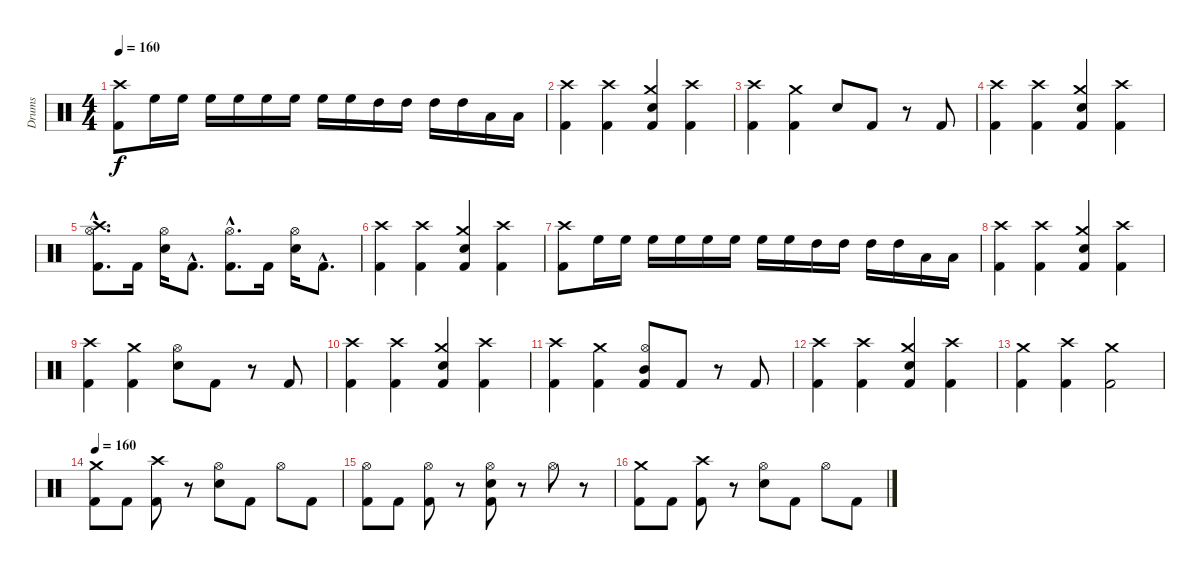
\track ("Drums" "Drums") {instrument percussion}
\staff {score}
\articulation defaults
\ts (4 4)
\tempo 160
\clef neutral
\ks c
("Crash high (hit)" "Kick (hit) 2").8{dy f} "High Floor Tom (hit)".16 "High Floor Tom (hit)".16 "High Floor Tom (hit)".16 "High Floor Tom (hit)".16 "High Floor Tom (hit)".16 "High Floor Tom (hit)".16 "High Floor Tom (hit)".16 "High Floor Tom (hit)".16 "High Tom (hit)".16 "High Tom (hit)".16 "High Tom (hit)".16 "High Tom (hit)".16 "Low Tom (hit)".16 "Low Floor Tom (hit)".16 |
("Crash high (hit)" "Kick (hit) 2").4 ("Crash high (hit)" "Kick (hit) 2").4 ("Crash medium (hit)" "Snare (hit) 2" "Kick (hit) 2").4 ("Crash high (hit)" "Kick (hit) 2").4 |
("Crash high (hit)" "Kick (hit) 2").4 ("Crash medium (hit)" "Kick (hit) 2").4 "Snare (hit) 2".8 "Kick (hit) 2".8 r.8 "Kick (hit) 2".8 |
("Crash high (hit)" "Kick (hit) 2").4 ("Crash high (hit)" "Kick (hit) 2").4 ("Crash medium (hit)" "Snare (hit) 2" "Kick (hit) 2").4 ("Crash high (hit)" "Kick (hit) 2").4 |
("Crash high (hit)"{hac} "Hi-Hat (open)"{hac} "Kick (hit) 2"{hac}).8{d} "Kick (hit) 2".16 ("Snare (hit) 2" "Hi-Hat (open)").16 "Kick (hit) 2"{hac}.8{d} ("Hi-Hat (open)"{hac} "Kick (hit) 2"{hac}).8{d} "Kick (hit) 2".16 ("Snare (hit) 2" "Hi-Hat (open)").16 "Kick (hit) 2"{hac}.8{d} |
("Crash high (hit)" "Kick (hit) 2").4 ("Crash high (hit)" "Kick (hit) 2").4 ("Crash medium (hit)" "Snare (hit) 2" "Kick (hit) 2").4 ("Crash high (hit)" "Kick (hit) 2").4 |
("Crash high (hit)" "Kick (hit) 2").8 "High Floor Tom (hit)".16 "High Floor Tom (hit)".16 "High Floor Tom (hit)".16 "High Floor Tom (hit)".16 "High Floor Tom (hit)".16 "High Floor Tom (hit)".16 "High Floor Tom (hit)".16 "High Floor Tom (hit)".16 "High Tom (hit)".16 "High Tom (hit)".16 "High Tom (hit)".16 "High Tom (hit)".16 "Low Tom (hit)".16 "Low Floor Tom (hit)".16 |
("Crash high (hit)" "Kick (hit) 2").4 ("Crash high (hit)" "Kick (hit) 2").4 ("Crash medium (hit)" "Snare (hit) 2" "Kick (hit) 2").4 ("Crash high (hit)" "Kick (hit) 2").4 |
("Crash high (hit)" "Kick (hit) 2").4 ("Crash medium (hit)" "Kick (hit) 2").4 ("Snare (hit) 2" "Hi-Hat (open)").8 "Kick (hit) 2".8 r.8 "Kick (hit) 2".8 |
("Crash high (hit)" "Kick (hit) 2").4 ("Crash high (hit)" "Kick (hit) 2").4 ("Crash medium (hit)" "Snare (hit) 2" "Kick (hit) 2").4 ("Crash high (hit)" "Kick (hit) 2").4 |
("Crash high (hit)" "Kick (hit) 2").4 ("Crash medium (hit)" "Kick (hit) 2").4 ("Mid Tom (hit)" "Hi-Hat (open)" "Kick (hit) 2").8 "Kick (hit) 2".8 r.8 "Kick (hit) 2".8 |
("Crash high (hit)" "Kick (hit) 2").4 ("Crash high (hit)" "Kick (hit) 2").4 ("Crash medium (hit)" "Snare (hit) 2" "Kick (hit) 2").4 ("Crash high (hit)" "Kick (hit) 2").4 |
("Crash medium (hit)" "Kick (hit) 2").4 ("Crash high (hit)" "Kick (hit) 2").4 ("Crash medium (hit)" "Kick (hit) 2").2 |
\tempo 160
("Crash medium (hit)" "Kick (hit) 2").8 "Kick (hit) 2".8 ("Crash high (hit)" "Kick (hit) 2").8 r.8 ("Snare (hit) 2" "Hi-Hat (open)").8 "Kick (hit) 2".8 "Hi-Hat (open)".8 "Kick (hit) 2".8 |
("Hi-Hat (open)" "Kick (hit) 2").8 "Kick (hit) 2".8 ("Hi-Hat (open)" "Kick (hit) 2").8 r.8 ("Snare (hit) 2" "Hi-Hat (open)" "Kick (hit) 2").8 r.8 "Hi-Hat (open)".8 r.8 |
("Crash medium (hit)" "Kick (hit) 2").8 "Kick (hit) 2".8 ("Crash high (hit)" "Kick (hit) 2").8 r.8 ("Snare (hit) 2" "Hi-Hat (open)").8 "Kick (hit) 2".8 "Hi-Hat (open)".8 "Kick (hit) 2".8
